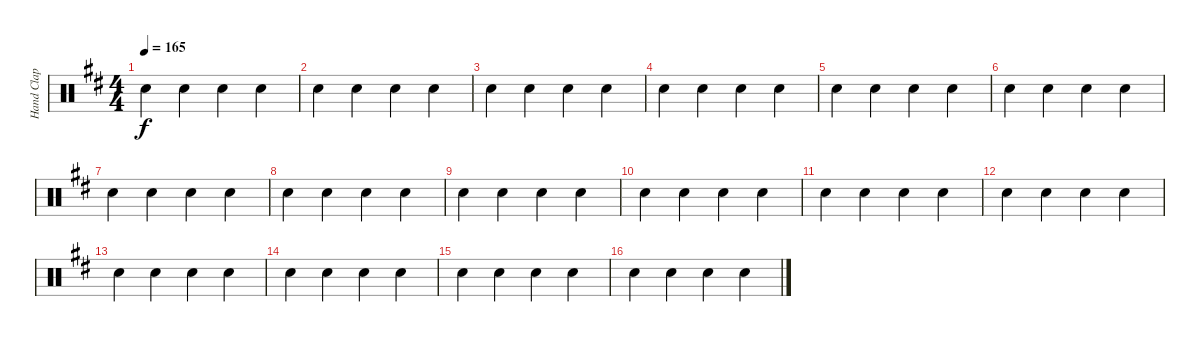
\track ("Hand Clap" "Hand Clap") {instrument percussion}
\staff {score}
\articulation defaults
\ts (4 4)
\tempo 165
\clef neutral
\ks d "Hand Clap (hit)".4{dy f} "Hand Clap (hit)".4 "Hand Clap (hit)".4 "Hand Clap (hit)".4
|
"Hand Clap (hit)".4 "Hand Clap (hit)".4 "Hand Clap (hit)".4 "Hand Clap (hit)".4 |
"Hand Clap (hit)".4 "Hand Clap (hit)".4 "Hand Clap (hit)".4 "Hand Clap (hit)".4 |
"Hand Clap (hit)".4 "Hand Clap (hit)".4 "Hand Clap (hit)".4 "Hand Clap (hit)".4 |
"Hand Clap (hit)".4 "Hand Clap (hit)".4 "Hand Clap (hit)".4 "Hand Clap (hit)".4 |
"Hand Clap (hit)".4 "Hand Clap (hit)".4 "Hand Clap (hit)".4 "Hand Clap (hit)".4 |
"Hand Clap (hit)".4 "Hand Clap (hit)".4 "Hand Clap (hit)".4 "Hand Clap (hit)".4 |
"Hand Clap (hit)".4 "Hand Clap (hit)".4 "Hand Clap (hit)".4 "Hand Clap (hit)".4 |
"Hand Clap (hit)".4 "Hand Clap (hit)".4 "Hand Clap (hit)".4 "Hand Clap (hit)".4 |
"Hand Clap (hit)".4 "Hand Clap (hit)".4 "Hand Clap (hit)".4 "Hand Clap (hit)".4 |
"Hand Clap (hit)".4 "Hand Clap (hit)".4 "Hand Clap (hit)".4 "Hand Clap (hit)".4 |
"Hand Clap (hit)".4 "Hand Clap (hit)".4 "Hand Clap (hit)".4 "Hand Clap (hit)".4 |
"Hand Clap (hit)".4 "Hand Clap (hit)".4 "Hand Clap (hit)".4 "Hand Clap (hit)".4 |
"Hand Clap (hit)".4 "Hand Clap (hit)".4 "Hand Clap (hit)".4 "Hand Clap (hit)".4 |
"Hand Clap (hit)".4 "Hand Clap (hit)".4 "Hand Clap (hit)".4 "Hand Clap (hit)".4 |
"Hand Clap (hit)".4 "Hand Clap (hit)".4 "Hand Clap (hit)".4 "Hand Clap (hit)".4
